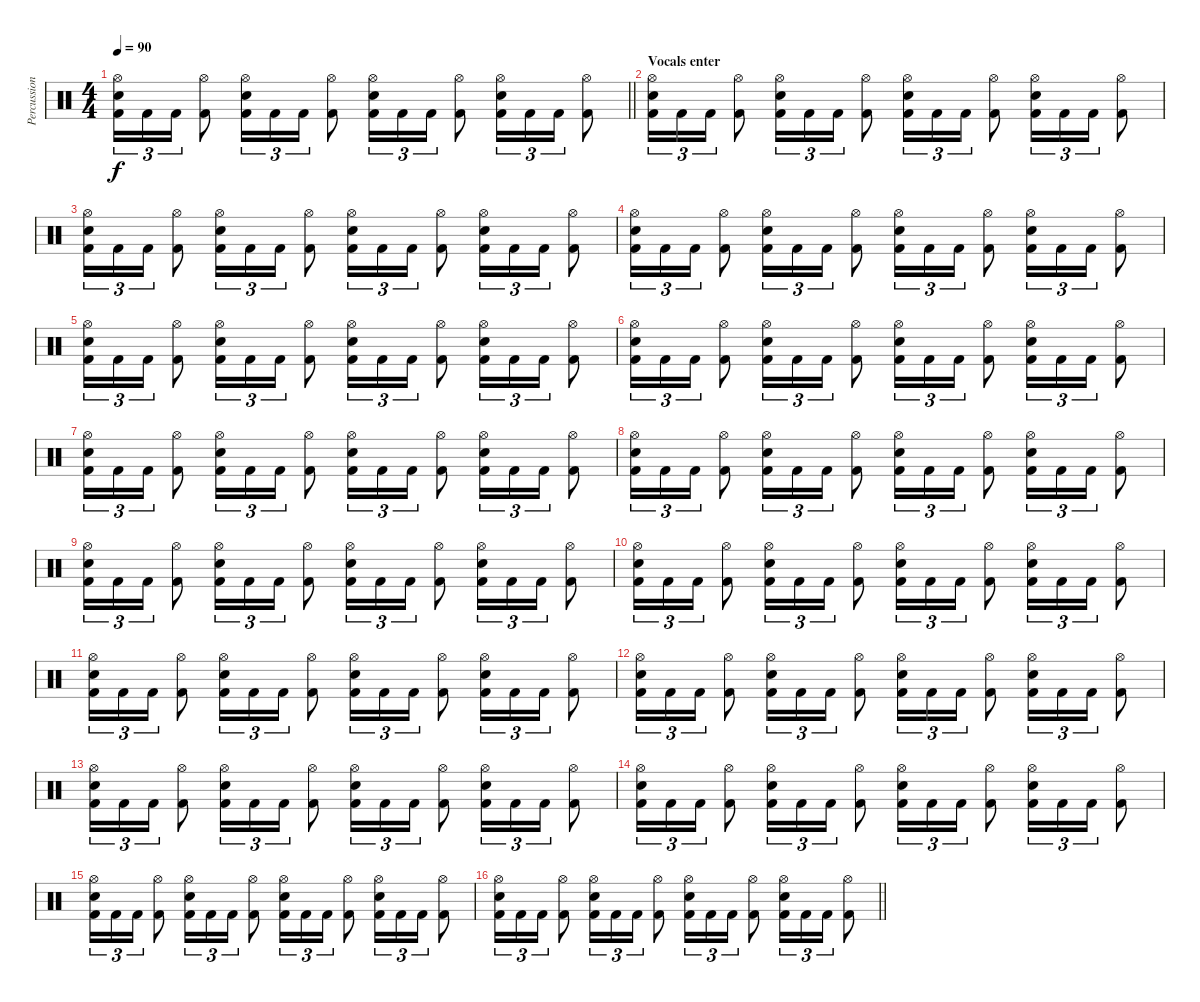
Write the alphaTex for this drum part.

\track ("Percussion" "Percussion") {instrument percussion}
\staff {score}
\articulation defaults
\ts (4 4)
\tempo 90
\clef neutral
\barLineRight lightlight
\ks c
("Hi-Hat (open)" "Snare (hit) 2" "Kick (hit) 2").16{tu (3 2) dy f} "Kick (hit) 2".16{tu (3 2)} "Kick (hit) 2".16{tu (3 2)} ("Hi-Hat (open)" "Kick (hit) 2").8 ("Hi-Hat (open)" "Snare (hit) 2" "Kick (hit) 2").16{tu (3 2)} "Kick (hit) 2".16{tu (3 2)} "Kick (hit) 2".16{tu (3 2)} ("Hi-Hat (open)" "Kick (hit) 2").8 ("Hi-Hat (open)" "Snare (hit) 2" "Kick (hit) 2").16{tu (3 2)} "Kick (hit) 2".16{tu (3 2)} "Kick (hit) 2".16{tu (3 2)} ("Hi-Hat (open)" "Kick (hit) 2").8 ("Hi-Hat (open)" "Snare (hit) 2" "Kick (hit) 2").16{tu (3 2)} "Kick (hit) 2".16{tu (3 2)} "Kick (hit) 2".16{tu (3 2)} ("Hi-Hat (open)" "Kick (hit) 2").8 |
\section ("" "Vocals enter")
("Hi-Hat (open)" "Snare (hit) 2" "Kick (hit) 2").16{tu (3 2)} "Kick (hit) 2".16{tu (3 2)} "Kick (hit) 2".16{tu (3 2)} ("Hi-Hat (open)" "Kick (hit) 2").8 ("Hi-Hat (open)" "Snare (hit) 2" "Kick (hit) 2").16{tu (3 2)} "Kick (hit) 2".16{tu (3 2)} "Kick (hit) 2".16{tu (3 2)} ("Hi-Hat (open)" "Kick (hit) 2").8 ("Hi-Hat (open)" "Snare (hit) 2" "Kick (hit) 2").16{tu (3 2)} "Kick (hit) 2".16{tu (3 2)} "Kick (hit) 2".16{tu (3 2)} ("Hi-Hat (open)" "Kick (hit) 2").8 ("Hi-Hat (open)" "Snare (hit) 2" "Kick (hit) 2").16{tu (3 2)} "Kick (hit) 2".16{tu (3 2)} "Kick (hit) 2".16{tu (3 2)} ("Hi-Hat (open)" "Kick (hit) 2").8 |
("Hi-Hat (open)" "Snare (hit) 2" "Kick (hit) 2").16{tu (3 2)} "Kick (hit) 2".16{tu (3 2)} "Kick (hit) 2".16{tu (3 2)} ("Hi-Hat (open)" "Kick (hit) 2").8 ("Hi-Hat (open)" "Snare (hit) 2" "Kick (hit) 2").16{tu (3 2)} "Kick (hit) 2".16{tu (3 2)} "Kick (hit) 2".16{tu (3 2)} ("Hi-Hat (open)" "Kick (hit) 2").8 ("Hi-Hat (open)" "Snare (hit) 2" "Kick (hit) 2").16{tu (3 2)} "Kick (hit) 2".16{tu (3 2)} "Kick (hit) 2".16{tu (3 2)} ("Hi-Hat (open)" "Kick (hit) 2").8 ("Hi-Hat (open)" "Snare (hit) 2" "Kick (hit) 2").16{tu (3 2)} "Kick (hit) 2".16{tu (3 2)} "Kick (hit) 2".16{tu (3 2)} ("Hi-Hat (open)" "Kick (hit) 2").8 |
("Hi-Hat (open)" "Snare (hit) 2" "Kick (hit) 2").16{tu (3 2)} "Kick (hit) 2".16{tu (3 2)} "Kick (hit) 2".16{tu (3 2)} ("Hi-Hat (open)" "Kick (hit) 2").8 ("Hi-Hat (open)" "Snare (hit) 2" "Kick (hit) 2").16{tu (3 2)} "Kick (hit) 2".16{tu (3 2)} "Kick (hit) 2".16{tu (3 2)} ("Hi-Hat (open)" "Kick (hit) 2").8 ("Hi-Hat (open)" "Snare (hit) 2" "Kick (hit) 2").16{tu (3 2)} "Kick (hit) 2".16{tu (3 2)} "Kick (hit) 2".16{tu (3 2)} ("Hi-Hat (open)" "Kick (hit) 2").8 ("Hi-Hat (open)" "Snare (hit) 2" "Kick (hit) 2").16{tu (3 2)} "Kick (hit) 2".16{tu (3 2)} "Kick (hit) 2".16{tu (3 2)} ("Hi-Hat (open)" "Kick (hit) 2").8 |
("Hi-Hat (open)" "Snare (hit) 2" "Kick (hit) 2").16{tu (3 2)} "Kick (hit) 2".16{tu (3 2)} "Kick (hit) 2".16{tu (3 2)} ("Hi-Hat (open)" "Kick (hit) 2").8 ("Hi-Hat (open)" "Snare (hit) 2" "Kick (hit) 2").16{tu (3 2)} "Kick (hit) 2".16{tu (3 2)} "Kick (hit) 2".16{tu (3 2)} ("Hi-Hat (open)" "Kick (hit) 2").8 ("Hi-Hat (open)" "Snare (hit) 2" "Kick (hit) 2").16{tu (3 2)} "Kick (hit) 2".16{tu (3 2)} "Kick (hit) 2".16{tu (3 2)} ("Hi-Hat (open)" "Kick (hit) 2").8 ("Hi-Hat (open)" "Snare (hit) 2" "Kick (hit) 2").16{tu (3 2)} "Kick (hit) 2".16{tu (3 2)} "Kick (hit) 2".16{tu (3 2)} ("Hi-Hat (open)" "Kick (hit) 2").8 |
("Hi-Hat (open)" "Snare (hit) 2" "Kick (hit) 2").16{tu (3 2)} "Kick (hit) 2".16{tu (3 2)} "Kick (hit) 2".16{tu (3 2)} ("Hi-Hat (open)" "Kick (hit) 2").8 ("Hi-Hat (open)" "Snare (hit) 2" "Kick (hit) 2").16{tu (3 2)} "Kick (hit) 2".16{tu (3 2)} "Kick (hit) 2".16{tu (3 2)} ("Hi-Hat (open)" "Kick (hit) 2").8 ("Hi-Hat (open)" "Snare (hit) 2" "Kick (hit) 2").16{tu (3 2)} "Kick (hit) 2".16{tu (3 2)} "Kick (hit) 2".16{tu (3 2)} ("Hi-Hat (open)" "Kick (hit) 2").8 ("Hi-Hat (open)" "Snare (hit) 2" "Kick (hit) 2").16{tu (3 2)} "Kick (hit) 2".16{tu (3 2)} "Kick (hit) 2".16{tu (3 2)} ("Hi-Hat (open)" "Kick (hit) 2").8 |
("Hi-Hat (open)" "Snare (hit) 2" "Kick (hit) 2").16{tu (3 2)} "Kick (hit) 2".16{tu (3 2)} "Kick (hit) 2".16{tu (3 2)} ("Hi-Hat (open)" "Kick (hit) 2").8 ("Hi-Hat (open)" "Snare (hit) 2" "Kick (hit) 2").16{tu (3 2)} "Kick (hit) 2".16{tu (3 2)} "Kick (hit) 2".16{tu (3 2)} ("Hi-Hat (open)" "Kick (hit) 2").8 ("Hi-Hat (open)" "Snare (hit) 2" "Kick (hit) 2").16{tu (3 2)} "Kick (hit) 2".16{tu (3 2)} "Kick (hit) 2".16{tu (3 2)} ("Hi-Hat (open)" "Kick (hit) 2").8 ("Hi-Hat (open)" "Snare (hit) 2" "Kick (hit) 2").16{tu (3 2)} "Kick (hit) 2".16{tu (3 2)} "Kick (hit) 2".16{tu (3 2)} ("Hi-Hat (open)" "Kick (hit) 2").8 |
("Hi-Hat (open)" "Snare (hit) 2" "Kick (hit) 2").16{tu (3 2)} "Kick (hit) 2".16{tu (3 2)} "Kick (hit) 2".16{tu (3 2)} ("Hi-Hat (open)" "Kick (hit) 2").8 ("Hi-Hat (open)" "Snare (hit) 2" "Kick (hit) 2").16{tu (3 2)} "Kick (hit) 2".16{tu (3 2)} "Kick (hit) 2".16{tu (3 2)} ("Hi-Hat (open)" "Kick (hit) 2").8 ("Hi-Hat (open)" "Snare (hit) 2" "Kick (hit) 2").16{tu (3 2)} "Kick (hit) 2".16{tu (3 2)} "Kick (hit) 2".16{tu (3 2)} ("Hi-Hat (open)" "Kick (hit) 2").8 ("Hi-Hat (open)" "Snare (hit) 2" "Kick (hit) 2").16{tu (3 2)} "Kick (hit) 2".16{tu (3 2)} "Kick (hit) 2".16{tu (3 2)} ("Hi-Hat (open)" "Kick (hit) 2").8 |
("Hi-Hat (open)" "Snare (hit) 2" "Kick (hit) 2").16{tu (3 2)} "Kick (hit) 2".16{tu (3 2)} "Kick (hit) 2".16{tu (3 2)} ("Hi-Hat (open)" "Kick (hit) 2").8 ("Hi-Hat (open)" "Snare (hit) 2" "Kick (hit) 2").16{tu (3 2)} "Kick (hit) 2".16{tu (3 2)} "Kick (hit) 2".16{tu (3 2)} ("Hi-Hat (open)" "Kick (hit) 2").8 ("Hi-Hat (open)" "Snare (hit) 2" "Kick (hit) 2").16{tu (3 2)} "Kick (hit) 2".16{tu (3 2)} "Kick (hit) 2".16{tu (3 2)} ("Hi-Hat (open)" "Kick (hit) 2").8 ("Hi-Hat (open)" "Snare (hit) 2" "Kick (hit) 2").16{tu (3 2)} "Kick (hit) 2".16{tu (3 2)} "Kick (hit) 2".16{tu (3 2)} ("Hi-Hat (open)" "Kick (hit) 2").8 |
("Hi-Hat (open)" "Snare (hit) 2" "Kick (hit) 2").16{tu (3 2)} "Kick (hit) 2".16{tu (3 2)} "Kick (hit) 2".16{tu (3 2)} ("Hi-Hat (open)" "Kick (hit) 2").8 ("Hi-Hat (open)" "Snare (hit) 2" "Kick (hit) 2").16{tu (3 2)} "Kick (hit) 2".16{tu (3 2)} "Kick (hit) 2".16{tu (3 2)} ("Hi-Hat (open)" "Kick (hit) 2").8 ("Hi-Hat (open)" "Snare (hit) 2" "Kick (hit) 2").16{tu (3 2)} "Kick (hit) 2".16{tu (3 2)} "Kick (hit) 2".16{tu (3 2)} ("Hi-Hat (open)" "Kick (hit) 2").8 ("Hi-Hat (open)" "Snare (hit) 2" "Kick (hit) 2").16{tu (3 2)} "Kick (hit) 2".16{tu (3 2)} "Kick (hit) 2".16{tu (3 2)} ("Hi-Hat (open)" "Kick (hit) 2").8 |
("Hi-Hat (open)" "Snare (hit) 2" "Kick (hit) 2").16{tu (3 2)} "Kick (hit) 2".16{tu (3 2)} "Kick (hit) 2".16{tu (3 2)} ("Hi-Hat (open)" "Kick (hit) 2").8 ("Hi-Hat (open)" "Snare (hit) 2" "Kick (hit) 2").16{tu (3 2)} "Kick (hit) 2".16{tu (3 2)} "Kick (hit) 2".16{tu (3 2)} ("Hi-Hat (open)" "Kick (hit) 2").8 ("Hi-Hat (open)" "Snare (hit) 2" "Kick (hit) 2").16{tu (3 2)} "Kick (hit) 2".16{tu (3 2)} "Kick (hit) 2".16{tu (3 2)} ("Hi-Hat (open)" "Kick (hit) 2").8 ("Hi-Hat (open)" "Snare (hit) 2" "Kick (hit) 2").16{tu (3 2)} "Kick (hit) 2".16{tu (3 2)} "Kick (hit) 2".16{tu (3 2)} ("Hi-Hat (open)" "Kick (hit) 2").8 |
("Hi-Hat (open)" "Snare (hit) 2" "Kick (hit) 2").16{tu (3 2)} "Kick (hit) 2".16{tu (3 2)} "Kick (hit) 2".16{tu (3 2)} ("Hi-Hat (open)" "Kick (hit) 2").8 ("Hi-Hat (open)" "Snare (hit) 2" "Kick (hit) 2").16{tu (3 2)} "Kick (hit) 2".16{tu (3 2)} "Kick (hit) 2".16{tu (3 2)} ("Hi-Hat (open)" "Kick (hit) 2").8 ("Hi-Hat (open)" "Snare (hit) 2" "Kick (hit) 2").16{tu (3 2)} "Kick (hit) 2".16{tu (3 2)} "Kick (hit) 2".16{tu (3 2)} ("Hi-Hat (open)" "Kick (hit) 2").8 ("Hi-Hat (open)" "Snare (hit) 2" "Kick (hit) 2").16{tu (3 2)} "Kick (hit) 2".16{tu (3 2)} "Kick (hit) 2".16{tu (3 2)} ("Hi-Hat (open)" "Kick (hit) 2").8 |
("Hi-Hat (open)" "Snare (hit) 2" "Kick (hit) 2").16{tu (3 2)} "Kick (hit) 2".16{tu (3 2)} "Kick (hit) 2".16{tu (3 2)} ("Hi-Hat (open)" "Kick (hit) 2").8 ("Hi-Hat (open)" "Snare (hit) 2" "Kick (hit) 2").16{tu (3 2)} "Kick (hit) 2".16{tu (3 2)} "Kick (hit) 2".16{tu (3 2)} ("Hi-Hat (open)" "Kick (hit) 2").8 ("Hi-Hat (open)" "Snare (hit) 2" "Kick (hit) 2").16{tu (3 2)} "Kick (hit) 2".16{tu (3 2)} "Kick (hit) 2".16{tu (3 2)} ("Hi-Hat (open)" "Kick (hit) 2").8 ("Hi-Hat (open)" "Snare (hit) 2" "Kick (hit) 2").16{tu (3 2)} "Kick (hit) 2".16{tu (3 2)} "Kick (hit) 2".16{tu (3 2)} ("Hi-Hat (open)" "Kick (hit) 2").8 |
("Hi-Hat (open)" "Snare (hit) 2" "Kick (hit) 2").16{tu (3 2)} "Kick (hit) 2".16{tu (3 2)} "Kick (hit) 2".16{tu (3 2)} ("Hi-Hat (open)" "Kick (hit) 2").8 ("Hi-Hat (open)" "Snare (hit) 2" "Kick (hit) 2").16{tu (3 2)} "Kick (hit) 2".16{tu (3 2)} "Kick (hit) 2".16{tu (3 2)} ("Hi-Hat (open)" "Kick (hit) 2").8 ("Hi-Hat (open)" "Snare (hit) 2" "Kick (hit) 2").16{tu (3 2)} "Kick (hit) 2".16{tu (3 2)} "Kick (hit) 2".16{tu (3 2)} ("Hi-Hat (open)" "Kick (hit) 2").8 ("Hi-Hat (open)" "Snare (hit) 2" "Kick (hit) 2").16{tu (3 2)} "Kick (hit) 2".16{tu (3 2)} "Kick (hit) 2".16{tu (3 2)} ("Hi-Hat (open)" "Kick (hit) 2").8 |
("Hi-Hat (open)" "Snare (hit) 2" "Kick (hit) 2").16{tu (3 2)} "Kick (hit) 2".16{tu (3 2)} "Kick (hit) 2".16{tu (3 2)} ("Hi-Hat (open)" "Kick (hit) 2").8 ("Hi-Hat (open)" "Snare (hit) 2" "Kick (hit) 2").16{tu (3 2)} "Kick (hit) 2".16{tu (3 2)} "Kick (hit) 2".16{tu (3 2)} ("Hi-Hat (open)" "Kick (hit) 2").8 ("Hi-Hat (open)" "Snare (hit) 2" "Kick (hit) 2").16{tu (3 2)} "Kick (hit) 2".16{tu (3 2)} "Kick (hit) 2".16{tu (3 2)} ("Hi-Hat (open)" "Kick (hit) 2").8 ("Hi-Hat (open)" "Snare (hit) 2" "Kick (hit) 2").16{tu (3 2)} "Kick (hit) 2".16{tu (3 2)} "Kick (hit) 2".16{tu (3 2)} ("Hi-Hat (open)" "Kick (hit) 2").8 |
\barLineRight lightlight
("Hi-Hat (open)" "Snare (hit) 2" "Kick (hit) 2").16{tu (3 2)} "Kick (hit) 2".16{tu (3 2)} "Kick (hit) 2".16{tu (3 2)} ("Hi-Hat (open)" "Kick (hit) 2").8 ("Hi-Hat (open)" "Snare (hit) 2" "Kick (hit) 2").16{tu (3 2)} "Kick (hit) 2".16{tu (3 2)} "Kick (hit) 2".16{tu (3 2)} ("Hi-Hat (open)" "Kick (hit) 2").8 ("Hi-Hat (open)" "Snare (hit) 2" "Kick (hit) 2").16{tu (3 2)} "Kick (hit) 2".16{tu (3 2)} "Kick (hit) 2".16{tu (3 2)} ("Hi-Hat (open)" "Kick (hit) 2").8 ("Hi-Hat (open)" "Snare (hit) 2" "Kick (hit) 2").16{tu (3 2)} "Kick (hit) 2".16{tu (3 2)} "Kick (hit) 2".16{tu (3 2)} ("Hi-Hat (open)" "Kick (hit) 2").8
